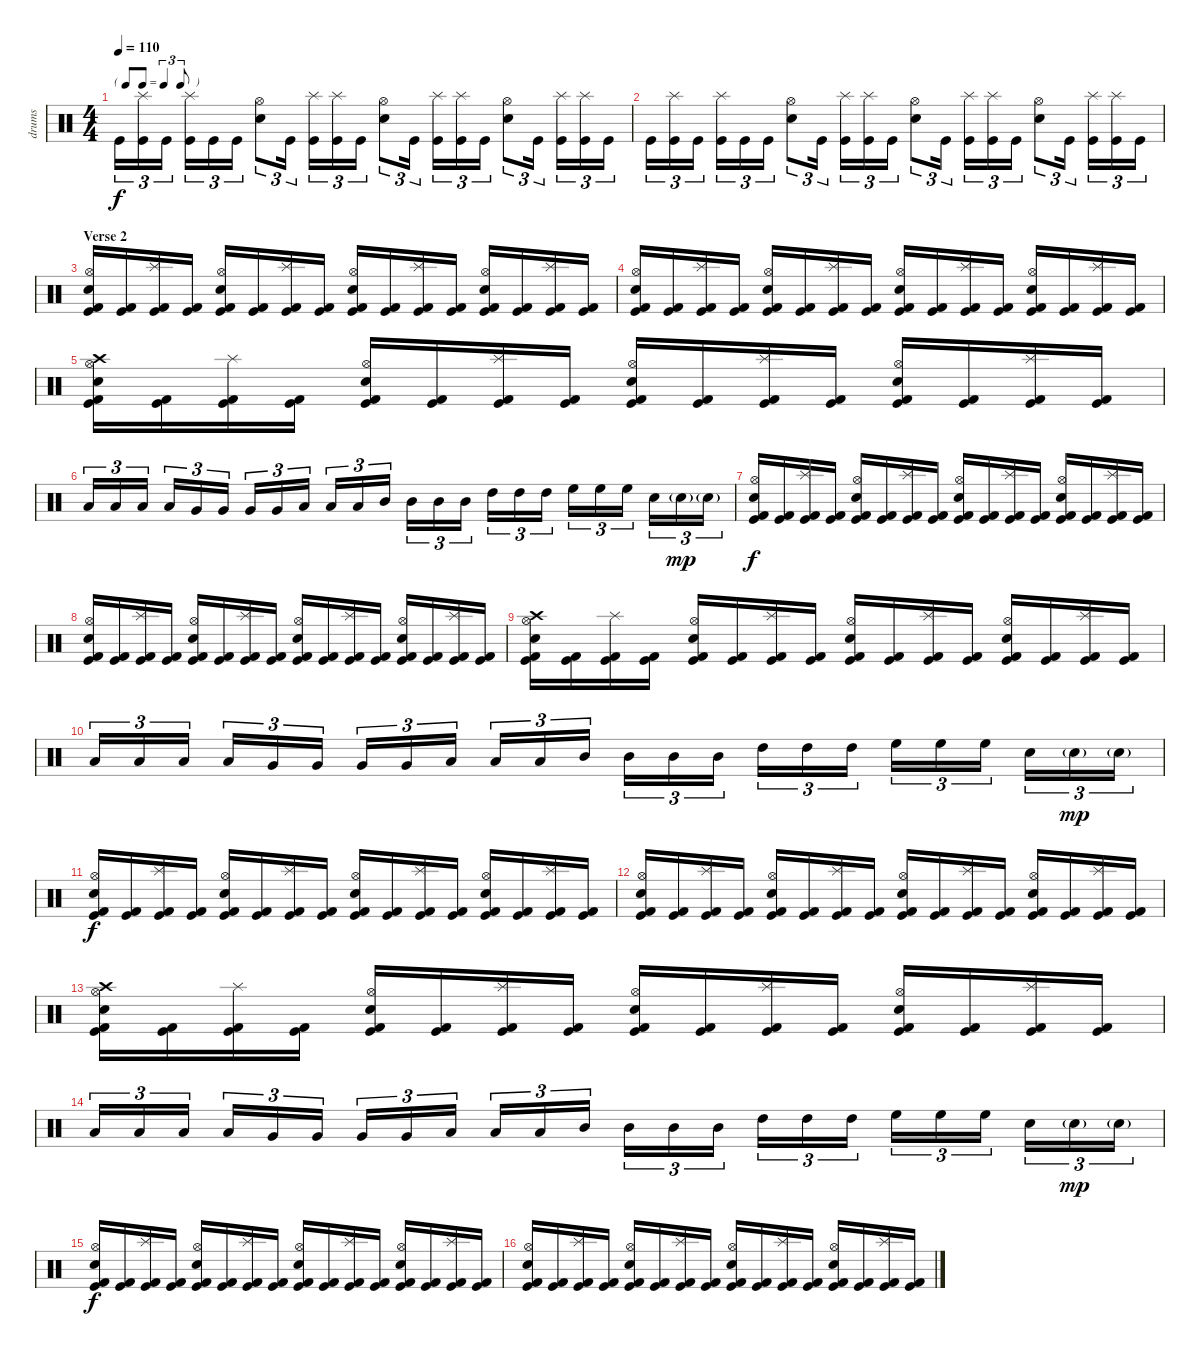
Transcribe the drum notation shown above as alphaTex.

\track ("drums" "drums") {instrument percussion}
\staff {score}
\articulation defaults
\ts (4 4)
\tf triplet8th
\tempo 110
\clef neutral
\ks c "Kick (hit)".16{tu (3 2) dy f}
("Splash (hit)" "Kick (hit)").16{tu (3 2)} "Kick (hit)".16{tu (3 2)} ("Splash (hit)" "Kick (hit)").16{tu (3 2)} "Kick (hit)".16{tu (3 2)} "Kick (hit)".16{tu (3 2)} ("Hi-Hat (open)" "Electric Snare (hit)").8{tu (3 2)} "Kick (hit)".16{tu (3 2)} ("Splash (hit)" "Kick (hit)").16{tu (3 2)} ("Splash (hit)" "Kick (hit)").16{tu (3 2)} "Kick (hit)".16{tu (3 2)} ("Hi-Hat (open)" "Electric Snare (hit)").8{tu (3 2)} "Kick (hit)".16{tu (3 2)} ("Splash (hit)" "Kick (hit)").16{tu (3 2)} ("Splash (hit)" "Kick (hit)").16{tu (3 2)} "Kick (hit)".16{tu (3 2)} ("Hi-Hat (open)" "Electric Snare (hit)").8{tu (3 2)} "Kick (hit)".16{tu (3 2)} ("Splash (hit)" "Kick (hit)").16{tu (3 2)} ("Splash (hit)" "Kick (hit)").16{tu (3 2)} "Kick (hit)".16{tu (3 2)} |
"Kick (hit)".16{tu (3 2)} ("Splash (hit)" "Kick (hit)").16{tu (3 2)} "Kick (hit)".16{tu (3 2)} ("Splash (hit)" "Kick (hit)").16{tu (3 2)} "Kick (hit)".16{tu (3 2)} "Kick (hit)".16{tu (3 2)} ("Hi-Hat (open)" "Electric Snare (hit)").8{tu (3 2)} "Kick (hit)".16{tu (3 2)} ("Splash (hit)" "Kick (hit)").16{tu (3 2)} ("Splash (hit)" "Kick (hit)").16{tu (3 2)} "Kick (hit)".16{tu (3 2)} ("Hi-Hat (open)" "Electric Snare (hit)").8{tu (3 2)} "Kick (hit)".16{tu (3 2)} ("Splash (hit)" "Kick (hit)").16{tu (3 2)} ("Splash (hit)" "Kick (hit)").16{tu (3 2)} "Kick (hit)".16{tu (3 2)} ("Hi-Hat (open)" "Electric Snare (hit)").8{tu (3 2)} "Kick (hit)".16{tu (3 2)} ("Splash (hit)" "Kick (hit)").16{tu (3 2)} ("Splash (hit)" "Kick (hit)").16{tu (3 2)} "Kick (hit)".16{tu (3 2)} |
\section ("" "Verse 2")
("Hi-Hat (open)" "Snare (hit) 2" "Kick (hit) 2" "Kick (hit)").16 ("Kick (hit) 2" "Kick (hit)").16 ("Splash (hit)" "Kick (hit) 2" "Kick (hit)").16 ("Kick (hit) 2" "Kick (hit)").16 ("Hi-Hat (open)" "Snare (hit) 2" "Kick (hit) 2" "Kick (hit)").16 ("Kick (hit) 2" "Kick (hit)").16 ("Splash (hit)" "Kick (hit) 2" "Kick (hit)").16 ("Kick (hit) 2" "Kick (hit)").16 ("Hi-Hat (open)" "Snare (hit) 2" "Kick (hit) 2" "Kick (hit)").16 ("Kick (hit) 2" "Kick (hit)").16 ("Splash (hit)" "Kick (hit) 2" "Kick (hit)").16 ("Kick (hit) 2" "Kick (hit)").16 ("Hi-Hat (open)" "Snare (hit) 2" "Kick (hit) 2" "Kick (hit)").16 ("Kick (hit) 2" "Kick (hit)").16 ("Splash (hit)" "Kick (hit) 2" "Kick (hit)").16 ("Kick (hit) 2" "Kick (hit)").16 |
("Hi-Hat (open)" "Snare (hit) 2" "Kick (hit) 2" "Kick (hit)").16 ("Kick (hit) 2" "Kick (hit)").16 ("Splash (hit)" "Kick (hit) 2" "Kick (hit)").16 ("Kick (hit) 2" "Kick (hit)").16 ("Hi-Hat (open)" "Snare (hit) 2" "Kick (hit) 2" "Kick (hit)").16 ("Kick (hit) 2" "Kick (hit)").16 ("Splash (hit)" "Kick (hit) 2" "Kick (hit)").16 ("Kick (hit) 2" "Kick (hit)").16 ("Hi-Hat (open)" "Snare (hit) 2" "Kick (hit) 2" "Kick (hit)").16 ("Kick (hit) 2" "Kick (hit)").16 ("Splash (hit)" "Kick (hit) 2" "Kick (hit)").16 ("Kick (hit) 2" "Kick (hit)").16 ("Hi-Hat (open)" "Snare (hit) 2" "Kick (hit) 2" "Kick (hit)").16 ("Kick (hit) 2" "Kick (hit)").16 ("Splash (hit)" "Kick (hit) 2" "Kick (hit)").16 ("Kick (hit) 2" "Kick (hit)").16 |
("Crash high (hit)" "Hi-Hat (open)" "Snare (hit) 2" "Kick (hit) 2" "Kick (hit)").16 ("Kick (hit) 2" "Kick (hit)").16 ("Splash (hit)" "Kick (hit) 2" "Kick (hit)").16 ("Kick (hit) 2" "Kick (hit)").16 ("Hi-Hat (open)" "Snare (hit) 2" "Kick (hit) 2" "Kick (hit)").16 ("Kick (hit) 2" "Kick (hit)").16 ("Splash (hit)" "Kick (hit) 2" "Kick (hit)").16 ("Kick (hit) 2" "Kick (hit)").16 ("Hi-Hat (open)" "Snare (hit) 2" "Kick (hit) 2" "Kick (hit)").16 ("Kick (hit) 2" "Kick (hit)").16 ("Splash (hit)" "Kick (hit) 2" "Kick (hit)").16 ("Kick (hit) 2" "Kick (hit)").16 ("Hi-Hat (open)" "Snare (hit) 2" "Kick (hit) 2" "Kick (hit)").16 ("Kick (hit) 2" "Kick (hit)").16 ("Splash (hit)" "Kick (hit) 2" "Kick (hit)").16 ("Kick (hit) 2" "Kick (hit)").16 |
"Low Floor Tom (hit)".16{tu (3 2)} "Low Floor Tom (hit)".16{tu (3 2)} "Low Floor Tom (hit)".16{tu (3 2)} "Low Floor Tom (hit)".16{tu (3 2)} "Very Low Tom (hit)".16{tu (3 2)} "Very Low Tom (hit)".16{tu (3 2)} "Very Low Tom (hit)".16{tu (3 2)} "Very Low Tom (hit)".16{tu (3 2)} "Low Tom (hit)".16{tu (3 2)} "Low Tom (hit)".16{tu (3 2)} "Low Tom (hit)".16{tu (3 2)} "Mid Tom (hit)".16{tu (3 2)} "Mid Tom (hit)".16{tu (3 2)} "Mid Tom (hit)".16{tu (3 2)} "Mid Tom (hit)".16{tu (3 2)} "High Tom (hit)".16{tu (3 2)} "High Tom (hit)".16{tu (3 2)} "High Tom (hit)".16{tu (3 2)} "High Floor Tom (hit)".16{tu (3 2)} "High Floor Tom (hit)".16{tu (3 2)} "High Floor Tom (hit)".16{tu (3 2)} "Electric Snare (hit)".16{tu (3 2)} "Snare (hit) 2"{g}.16{tu (3 2) dy mp} "Snare (hit) 2"{g}.16{tu (3 2)} |
("Hi-Hat (open)" "Snare (hit) 2" "Kick (hit) 2" "Kick (hit)").16{dy f} ("Kick (hit) 2" "Kick (hit)").16 ("Splash (hit)" "Kick (hit) 2" "Kick (hit)").16 ("Kick (hit) 2" "Kick (hit)").16 ("Hi-Hat (open)" "Snare (hit) 2" "Kick (hit) 2" "Kick (hit)").16 ("Kick (hit) 2" "Kick (hit)").16 ("Splash (hit)" "Kick (hit) 2" "Kick (hit)").16 ("Kick (hit) 2" "Kick (hit)").16 ("Hi-Hat (open)" "Snare (hit) 2" "Kick (hit) 2" "Kick (hit)").16 ("Kick (hit) 2" "Kick (hit)").16 ("Splash (hit)" "Kick (hit) 2" "Kick (hit)").16 ("Kick (hit) 2" "Kick (hit)").16 ("Hi-Hat (open)" "Snare (hit) 2" "Kick (hit) 2" "Kick (hit)").16 ("Kick (hit) 2" "Kick (hit)").16 ("Splash (hit)" "Kick (hit) 2" "Kick (hit)").16 ("Kick (hit) 2" "Kick (hit)").16 |
("Hi-Hat (open)" "Snare (hit) 2" "Kick (hit) 2" "Kick (hit)").16 ("Kick (hit) 2" "Kick (hit)").16 ("Splash (hit)" "Kick (hit) 2" "Kick (hit)").16 ("Kick (hit) 2" "Kick (hit)").16 ("Hi-Hat (open)" "Snare (hit) 2" "Kick (hit) 2" "Kick (hit)").16 ("Kick (hit) 2" "Kick (hit)").16 ("Splash (hit)" "Kick (hit) 2" "Kick (hit)").16 ("Kick (hit) 2" "Kick (hit)").16 ("Hi-Hat (open)" "Snare (hit) 2" "Kick (hit) 2" "Kick (hit)").16 ("Kick (hit) 2" "Kick (hit)").16 ("Splash (hit)" "Kick (hit) 2" "Kick (hit)").16 ("Kick (hit) 2" "Kick (hit)").16 ("Hi-Hat (open)" "Snare (hit) 2" "Kick (hit) 2" "Kick (hit)").16 ("Kick (hit) 2" "Kick (hit)").16 ("Splash (hit)" "Kick (hit) 2" "Kick (hit)").16 ("Kick (hit) 2" "Kick (hit)").16 |
("Crash high (hit)" "Hi-Hat (open)" "Snare (hit) 2" "Kick (hit) 2" "Kick (hit)").16 ("Kick (hit) 2" "Kick (hit)").16 ("Splash (hit)" "Kick (hit) 2" "Kick (hit)").16 ("Kick (hit) 2" "Kick (hit)").16 ("Hi-Hat (open)" "Snare (hit) 2" "Kick (hit) 2" "Kick (hit)").16 ("Kick (hit) 2" "Kick (hit)").16 ("Splash (hit)" "Kick (hit) 2" "Kick (hit)").16 ("Kick (hit) 2" "Kick (hit)").16 ("Hi-Hat (open)" "Snare (hit) 2" "Kick (hit) 2" "Kick (hit)").16 ("Kick (hit) 2" "Kick (hit)").16 ("Splash (hit)" "Kick (hit) 2" "Kick (hit)").16 ("Kick (hit) 2" "Kick (hit)").16 ("Hi-Hat (open)" "Snare (hit) 2" "Kick (hit) 2" "Kick (hit)").16 ("Kick (hit) 2" "Kick (hit)").16 ("Splash (hit)" "Kick (hit) 2" "Kick (hit)").16 ("Kick (hit) 2" "Kick (hit)").16 |
"Low Floor Tom (hit)".16{tu (3 2)} "Low Floor Tom (hit)".16{tu (3 2)} "Low Floor Tom (hit)".16{tu (3 2)} "Low Floor Tom (hit)".16{tu (3 2)} "Very Low Tom (hit)".16{tu (3 2)} "Very Low Tom (hit)".16{tu (3 2)} "Very Low Tom (hit)".16{tu (3 2)} "Very Low Tom (hit)".16{tu (3 2)} "Low Tom (hit)".16{tu (3 2)} "Low Tom (hit)".16{tu (3 2)} "Low Tom (hit)".16{tu (3 2)} "Mid Tom (hit)".16{tu (3 2)} "Mid Tom (hit)".16{tu (3 2)} "Mid Tom (hit)".16{tu (3 2)} "Mid Tom (hit)".16{tu (3 2)} "High Tom (hit)".16{tu (3 2)} "High Tom (hit)".16{tu (3 2)} "High Tom (hit)".16{tu (3 2)} "High Floor Tom (hit)".16{tu (3 2)} "High Floor Tom (hit)".16{tu (3 2)} "High Floor Tom (hit)".16{tu (3 2)} "Electric Snare (hit)".16{tu (3 2)} "Snare (hit) 2"{g}.16{tu (3 2) dy mp} "Snare (hit) 2"{g}.16{tu (3 2)} |
("Hi-Hat (open)" "Snare (hit) 2" "Kick (hit) 2" "Kick (hit)").16{dy f} ("Kick (hit) 2" "Kick (hit)").16 ("Splash (hit)" "Kick (hit) 2" "Kick (hit)").16 ("Kick (hit) 2" "Kick (hit)").16 ("Hi-Hat (open)" "Snare (hit) 2" "Kick (hit) 2" "Kick (hit)").16 ("Kick (hit) 2" "Kick (hit)").16 ("Splash (hit)" "Kick (hit) 2" "Kick (hit)").16 ("Kick (hit) 2" "Kick (hit)").16 ("Hi-Hat (open)" "Snare (hit) 2" "Kick (hit) 2" "Kick (hit)").16 ("Kick (hit) 2" "Kick (hit)").16 ("Splash (hit)" "Kick (hit) 2" "Kick (hit)").16 ("Kick (hit) 2" "Kick (hit)").16 ("Hi-Hat (open)" "Snare (hit) 2" "Kick (hit) 2" "Kick (hit)").16 ("Kick (hit) 2" "Kick (hit)").16 ("Splash (hit)" "Kick (hit) 2" "Kick (hit)").16 ("Kick (hit) 2" "Kick (hit)").16 |
("Hi-Hat (open)" "Snare (hit) 2" "Kick (hit) 2" "Kick (hit)").16 ("Kick (hit) 2" "Kick (hit)").16 ("Splash (hit)" "Kick (hit) 2" "Kick (hit)").16 ("Kick (hit) 2" "Kick (hit)").16 ("Hi-Hat (open)" "Snare (hit) 2" "Kick (hit) 2" "Kick (hit)").16 ("Kick (hit) 2" "Kick (hit)").16 ("Splash (hit)" "Kick (hit) 2" "Kick (hit)").16 ("Kick (hit) 2" "Kick (hit)").16 ("Hi-Hat (open)" "Snare (hit) 2" "Kick (hit) 2" "Kick (hit)").16 ("Kick (hit) 2" "Kick (hit)").16 ("Splash (hit)" "Kick (hit) 2" "Kick (hit)").16 ("Kick (hit) 2" "Kick (hit)").16 ("Hi-Hat (open)" "Snare (hit) 2" "Kick (hit) 2" "Kick (hit)").16 ("Kick (hit) 2" "Kick (hit)").16 ("Splash (hit)" "Kick (hit) 2" "Kick (hit)").16 ("Kick (hit) 2" "Kick (hit)").16 |
("Crash high (hit)" "Hi-Hat (open)" "Snare (hit) 2" "Kick (hit) 2" "Kick (hit)").16 ("Kick (hit) 2" "Kick (hit)").16 ("Splash (hit)" "Kick (hit) 2" "Kick (hit)").16 ("Kick (hit) 2" "Kick (hit)").16 ("Hi-Hat (open)" "Snare (hit) 2" "Kick (hit) 2" "Kick (hit)").16 ("Kick (hit) 2" "Kick (hit)").16 ("Splash (hit)" "Kick (hit) 2" "Kick (hit)").16 ("Kick (hit) 2" "Kick (hit)").16 ("Hi-Hat (open)" "Snare (hit) 2" "Kick (hit) 2" "Kick (hit)").16 ("Kick (hit) 2" "Kick (hit)").16 ("Splash (hit)" "Kick (hit) 2" "Kick (hit)").16 ("Kick (hit) 2" "Kick (hit)").16 ("Hi-Hat (open)" "Snare (hit) 2" "Kick (hit) 2" "Kick (hit)").16 ("Kick (hit) 2" "Kick (hit)").16 ("Splash (hit)" "Kick (hit) 2" "Kick (hit)").16 ("Kick (hit) 2" "Kick (hit)").16 |
"Low Floor Tom (hit)".16{tu (3 2)} "Low Floor Tom (hit)".16{tu (3 2)} "Low Floor Tom (hit)".16{tu (3 2)} "Low Floor Tom (hit)".16{tu (3 2)} "Very Low Tom (hit)".16{tu (3 2)} "Very Low Tom (hit)".16{tu (3 2)} "Very Low Tom (hit)".16{tu (3 2)} "Very Low Tom (hit)".16{tu (3 2)} "Low Tom (hit)".16{tu (3 2)} "Low Tom (hit)".16{tu (3 2)} "Low Tom (hit)".16{tu (3 2)} "Mid Tom (hit)".16{tu (3 2)} "Mid Tom (hit)".16{tu (3 2)} "Mid Tom (hit)".16{tu (3 2)} "Mid Tom (hit)".16{tu (3 2)} "High Tom (hit)".16{tu (3 2)} "High Tom (hit)".16{tu (3 2)} "High Tom (hit)".16{tu (3 2)} "High Floor Tom (hit)".16{tu (3 2)} "High Floor Tom (hit)".16{tu (3 2)} "High Floor Tom (hit)".16{tu (3 2)} "Electric Snare (hit)".16{tu (3 2)} "Snare (hit) 2"{g}.16{tu (3 2) dy mp} "Snare (hit) 2"{g}.16{tu (3 2)} |
("Hi-Hat (open)" "Snare (hit) 2" "Kick (hit) 2" "Kick (hit)").16{dy f} ("Kick (hit) 2" "Kick (hit)").16 ("Splash (hit)" "Kick (hit) 2" "Kick (hit)").16 ("Kick (hit) 2" "Kick (hit)").16 ("Hi-Hat (open)" "Snare (hit) 2" "Kick (hit) 2" "Kick (hit)").16 ("Kick (hit) 2" "Kick (hit)").16 ("Splash (hit)" "Kick (hit) 2" "Kick (hit)").16 ("Kick (hit) 2" "Kick (hit)").16 ("Hi-Hat (open)" "Snare (hit) 2" "Kick (hit) 2" "Kick (hit)").16 ("Kick (hit) 2" "Kick (hit)").16 ("Splash (hit)" "Kick (hit) 2" "Kick (hit)").16 ("Kick (hit) 2" "Kick (hit)").16 ("Hi-Hat (open)" "Snare (hit) 2" "Kick (hit) 2" "Kick (hit)").16 ("Kick (hit) 2" "Kick (hit)").16 ("Splash (hit)" "Kick (hit) 2" "Kick (hit)").16 ("Kick (hit) 2" "Kick (hit)").16 |
("Hi-Hat (open)" "Snare (hit) 2" "Kick (hit) 2" "Kick (hit)").16 ("Kick (hit) 2" "Kick (hit)").16 ("Splash (hit)" "Kick (hit) 2" "Kick (hit)").16 ("Kick (hit) 2" "Kick (hit)").16 ("Hi-Hat (open)" "Snare (hit) 2" "Kick (hit) 2" "Kick (hit)").16 ("Kick (hit) 2" "Kick (hit)").16 ("Splash (hit)" "Kick (hit) 2" "Kick (hit)").16 ("Kick (hit) 2" "Kick (hit)").16 ("Hi-Hat (open)" "Snare (hit) 2" "Kick (hit) 2" "Kick (hit)").16 ("Kick (hit) 2" "Kick (hit)").16 ("Splash (hit)" "Kick (hit) 2" "Kick (hit)").16 ("Kick (hit) 2" "Kick (hit)").16 ("Hi-Hat (open)" "Snare (hit) 2" "Kick (hit) 2" "Kick (hit)").16 ("Kick (hit) 2" "Kick (hit)").16 ("Splash (hit)" "Kick (hit) 2" "Kick (hit)").16 ("Kick (hit) 2" "Kick (hit)").16
